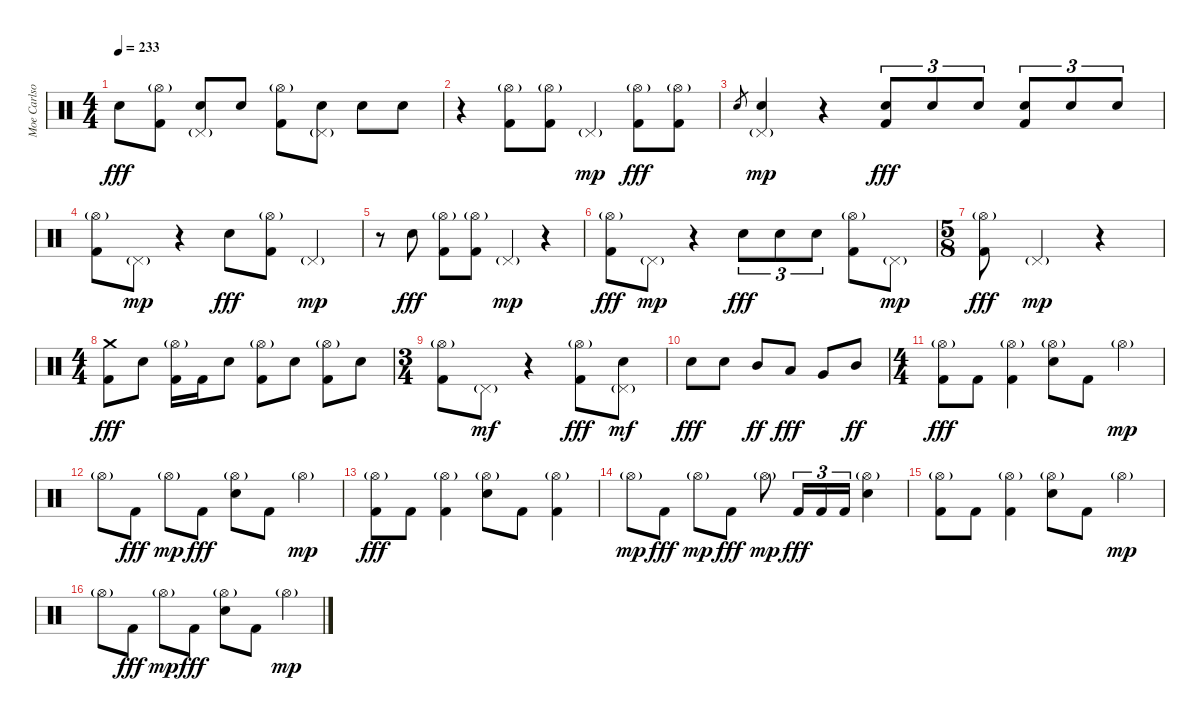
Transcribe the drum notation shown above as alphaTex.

\track ("Moe Carlson" "Moe Carlso") {instrument percussion}
\staff {score}
\articulation defaults
\ts (4 4)
\tempo 233
\clef neutral
\ks c "Electric Snare (hit)".8{dy fff}
("Hi-Hat (open)"{g} "Kick (hit) 2").8 ("Electric Snare (hit)" "Pedal Hi-Hat (hit)"{g}).8 "Electric Snare (hit)".8 ("Hi-Hat (open)"{g} "Kick (hit) 2").8 ("Electric Snare (hit)" "Pedal Hi-Hat (hit)"{g}).8 "Electric Snare (hit)".8 "Electric Snare (hit)".8 |
r.4 ("Hi-Hat (open)"{g} "Kick (hit) 2").8 ("Hi-Hat (open)"{g} "Kick (hit) 2").8 "Pedal Hi-Hat (hit)"{g}.4{dy mp} ("Hi-Hat (open)"{g} "Kick (hit) 2").8{dy fff} ("Hi-Hat (open)"{g} "Kick (hit) 2").8 |
"Electric Snare (hit)".8{gr} ("Electric Snare (hit)" "Pedal Hi-Hat (hit)"{g}).4{dy mp} r.4 ("Electric Snare (hit)" "Kick (hit) 2").8{tu (3 2) dy fff} "Electric Snare (hit)".8{tu (3 2)} "Electric Snare (hit)".8{tu (3 2)} ("Electric Snare (hit)" "Kick (hit) 2").8{tu (3 2)} "Electric Snare (hit)".8{tu (3 2)} "Electric Snare (hit)".8{tu (3 2)} |
("Hi-Hat (open)"{g} "Kick (hit) 2").8 "Pedal Hi-Hat (hit)"{g}.8{dy mp} r.4 "Electric Snare (hit)".8{dy fff} ("Hi-Hat (open)"{g} "Kick (hit) 2").8 "Pedal Hi-Hat (hit)"{g}.4{dy mp} |
r.8 "Electric Snare (hit)".8{dy fff} ("Hi-Hat (open)"{g} "Kick (hit) 2").8 ("Hi-Hat (open)"{g} "Kick (hit) 2").8 "Pedal Hi-Hat (hit)"{g}.4{dy mp} r.4 |
("Hi-Hat (open)"{g} "Kick (hit) 2").8{dy fff} "Pedal Hi-Hat (hit)"{g}.8{dy mp} r.4 "Electric Snare (hit)".8{tu (3 2) dy fff} "Electric Snare (hit)".8{tu (3 2)} "Electric Snare (hit)".8{tu (3 2)} ("Hi-Hat (open)"{g} "Kick (hit) 2").8 "Pedal Hi-Hat (hit)"{g}.8{dy mp} |
\ts (5 8)
("Hi-Hat (open)"{g} "Kick (hit) 2").8{dy fff} "Pedal Hi-Hat (hit)"{g}.4{dy mp} r.4 |
\ts (4 4)
("Crash medium (hit)" "Kick (hit) 2").8{dy fff} "Electric Snare (hit)".8 ("Hi-Hat (open)"{g} "Kick (hit) 2").16 "Kick (hit) 2".16 "Electric Snare (hit)".8 ("Hi-Hat (open)"{g} "Kick (hit) 2").8 "Electric Snare (hit)".8 ("Hi-Hat (open)"{g} "Kick (hit) 2").8 "Electric Snare (hit)".8 |
\ts (3 4)
("Hi-Hat (open)"{g} "Kick (hit) 2").8 "Pedal Hi-Hat (hit)"{g}.8{dy mf} r.4 ("Hi-Hat (open)"{g} "Kick (hit) 2").8{dy fff} ("Electric Snare (hit)" "Pedal Hi-Hat (hit)"{g}).8{dy mf} |
"Electric Snare (hit)".8{dy fff} "Electric Snare (hit)".8 "Mid Tom (hit)".8{dy ff} "Low Tom (hit)".8{dy fff} "Very Low Tom (hit)".8 "Mid Tom (hit)".8{dy ff} |
\ts (4 4)
("Hi-Hat (open)"{g} "Kick (hit) 2").8{dy fff} "Kick (hit) 2".8 ("Hi-Hat (open)"{g} "Kick (hit) 2").4 ("Hi-Hat (open)"{g} "Electric Snare (hit)").8 "Kick (hit) 2".8 "Hi-Hat (open)"{g}.4{dy mp} |
"Hi-Hat (open)"{g}.8 "Kick (hit) 2".8{dy fff} "Hi-Hat (open)"{g}.8{dy mp} "Kick (hit) 2".8{dy fff} ("Hi-Hat (open)"{g} "Electric Snare (hit)").8 "Kick (hit) 2".8 "Hi-Hat (open)"{g}.4{dy mp} |
("Hi-Hat (open)"{g} "Kick (hit) 2").8{dy fff} "Kick (hit) 2".8 ("Hi-Hat (open)"{g} "Kick (hit) 2").4 ("Hi-Hat (open)"{g} "Electric Snare (hit)").8 "Kick (hit) 2".8 ("Hi-Hat (open)"{g} "Kick (hit) 2").4 |
"Hi-Hat (open)"{g}.8{dy mp} "Kick (hit) 2".8{dy fff} "Hi-Hat (open)"{g}.8{dy mp} "Kick (hit) 2".8{dy fff} "Hi-Hat (open)"{g}.8{dy mp} "Kick (hit) 2".16{tu (3 2) dy fff} "Kick (hit) 2".16{tu (3 2)} "Kick (hit) 2".16{tu (3 2)} ("Hi-Hat (open)"{g} "Electric Snare (hit)").4 |
("Hi-Hat (open)"{g} "Kick (hit) 2").8 "Kick (hit) 2".8 ("Hi-Hat (open)"{g} "Kick (hit) 2").4 ("Hi-Hat (open)"{g} "Electric Snare (hit)").8 "Kick (hit) 2".8 "Hi-Hat (open)"{g}.4{dy mp} |
"Hi-Hat (open)"{g}.8 "Kick (hit) 2".8{dy fff} "Hi-Hat (open)"{g}.8{dy mp} "Kick (hit) 2".8{dy fff} ("Hi-Hat (open)"{g} "Electric Snare (hit)").8 "Kick (hit) 2".8 "Hi-Hat (open)"{g}.4{dy mp}
